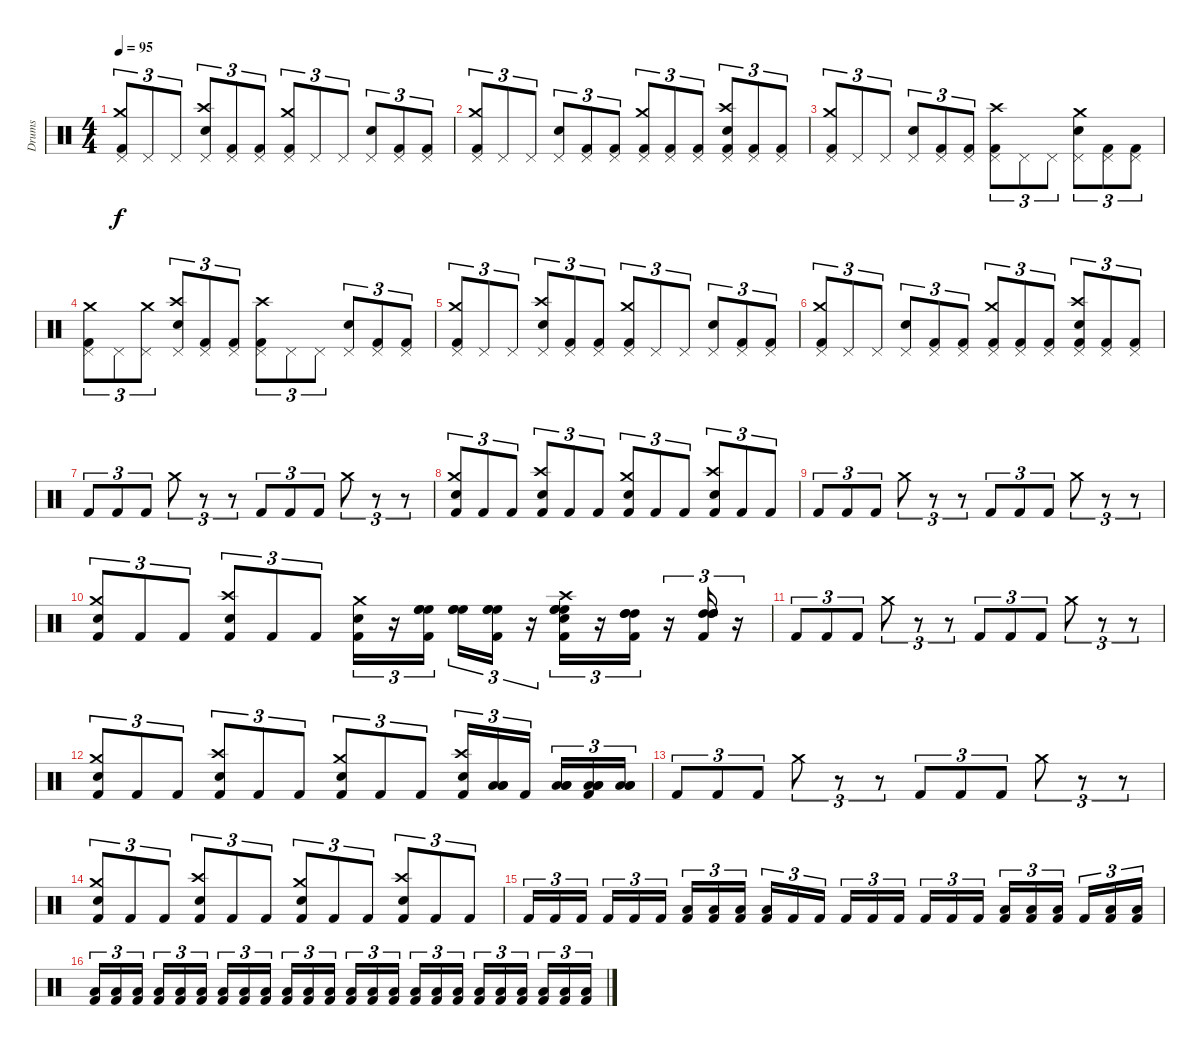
\track ("Drums" "Drums") {instrument percussion}
\staff {score}
\articulation defaults
\ts (4 4)
\tempo 95
\clef neutral
\ks c
("Kick (hit) 2" "Crash medium (hit)" "Pedal Hi-Hat (hit)").8{tu (3 2) dy f} "Pedal Hi-Hat (hit)".8{tu (3 2)} "Pedal Hi-Hat (hit)".8{tu (3 2)} ("Crash high (hit)" "Snare (hit) 2" "Pedal Hi-Hat (hit)").8{tu (3 2)} ("Kick (hit) 2" "Pedal Hi-Hat (hit)").8{tu (3 2)} ("Kick (hit) 2" "Pedal Hi-Hat (hit)").8{tu (3 2)} ("Kick (hit) 2" "Crash medium (hit)" "Pedal Hi-Hat (hit)").8{tu (3 2)} "Pedal Hi-Hat (hit)".8{tu (3 2)} "Pedal Hi-Hat (hit)".8{tu (3 2)} ("Snare (hit) 2" "Pedal Hi-Hat (hit)").8{tu (3 2)} ("Kick (hit) 2" "Pedal Hi-Hat (hit)").8{tu (3 2)} ("Kick (hit) 2" "Pedal Hi-Hat (hit)").8{tu (3 2)} |
("Kick (hit) 2" "Crash medium (hit)" "Pedal Hi-Hat (hit)").8{tu (3 2)} "Pedal Hi-Hat (hit)".8{tu (3 2)} "Pedal Hi-Hat (hit)".8{tu (3 2)} ("Snare (hit) 2" "Pedal Hi-Hat (hit)").8{tu (3 2)} ("Kick (hit) 2" "Pedal Hi-Hat (hit)").8{tu (3 2)} ("Kick (hit) 2" "Pedal Hi-Hat (hit)").8{tu (3 2)} ("Kick (hit) 2" "Crash medium (hit)" "Pedal Hi-Hat (hit)").8{tu (3 2)} ("Kick (hit) 2" "Pedal Hi-Hat (hit)").8{tu (3 2)} ("Kick (hit) 2" "Pedal Hi-Hat (hit)").8{tu (3 2)} ("Kick (hit) 2" "Crash high (hit)" "Snare (hit) 2" "Pedal Hi-Hat (hit)").8{tu (3 2)} ("Kick (hit) 2" "Pedal Hi-Hat (hit)").8{tu (3 2)} ("Kick (hit) 2" "Pedal Hi-Hat (hit)").8{tu (3 2)} |
("Kick (hit) 2" "Crash medium (hit)" "Pedal Hi-Hat (hit)").8{tu (3 2)} "Pedal Hi-Hat (hit)".8{tu (3 2)} "Pedal Hi-Hat (hit)".8{tu (3 2)} ("Snare (hit) 2" "Pedal Hi-Hat (hit)").8{tu (3 2)} ("Kick (hit) 2" "Pedal Hi-Hat (hit)").8{tu (3 2)} ("Kick (hit) 2" "Pedal Hi-Hat (hit)").8{tu (3 2)} ("Kick (hit) 2" "Crash high (hit)" "Pedal Hi-Hat (hit)").8{tu (3 2)} "Pedal Hi-Hat (hit)".8{tu (3 2)} "Pedal Hi-Hat (hit)".8{tu (3 2)} ("Crash medium (hit)" "Snare (hit) 2" "Pedal Hi-Hat (hit)").8{tu (3 2)} ("Kick (hit) 2" "Pedal Hi-Hat (hit)").8{tu (3 2)} ("Kick (hit) 2" "Pedal Hi-Hat (hit)").8{tu (3 2)} |
("Kick (hit) 2" "Crash medium (hit)" "Pedal Hi-Hat (hit)").8{tu (3 2)} "Pedal Hi-Hat (hit)".8{tu (3 2)} ("Crash medium (hit)" "Pedal Hi-Hat (hit)").8{tu (3 2)} ("Crash high (hit)" "Snare (hit) 2" "Pedal Hi-Hat (hit)").8{tu (3 2)} ("Kick (hit) 2" "Pedal Hi-Hat (hit)").8{tu (3 2)} ("Kick (hit) 2" "Pedal Hi-Hat (hit)").8{tu (3 2)} ("Kick (hit) 2" "Crash high (hit)" "Pedal Hi-Hat (hit)").8{tu (3 2)} "Pedal Hi-Hat (hit)".8{tu (3 2)} "Pedal Hi-Hat (hit)".8{tu (3 2)} ("Snare (hit) 2" "Pedal Hi-Hat (hit)").8{tu (3 2)} ("Kick (hit) 2" "Pedal Hi-Hat (hit)").8{tu (3 2)} ("Kick (hit) 2" "Pedal Hi-Hat (hit)").8{tu (3 2)} |
("Kick (hit) 2" "Crash medium (hit)" "Pedal Hi-Hat (hit)").8{tu (3 2)} "Pedal Hi-Hat (hit)".8{tu (3 2)} "Pedal Hi-Hat (hit)".8{tu (3 2)} ("Crash high (hit)" "Snare (hit) 2" "Pedal Hi-Hat (hit)").8{tu (3 2)} ("Kick (hit) 2" "Pedal Hi-Hat (hit)").8{tu (3 2)} ("Kick (hit) 2" "Pedal Hi-Hat (hit)").8{tu (3 2)} ("Kick (hit) 2" "Crash medium (hit)" "Pedal Hi-Hat (hit)").8{tu (3 2)} "Pedal Hi-Hat (hit)".8{tu (3 2)} "Pedal Hi-Hat (hit)".8{tu (3 2)} ("Snare (hit) 2" "Pedal Hi-Hat (hit)").8{tu (3 2)} ("Kick (hit) 2" "Pedal Hi-Hat (hit)").8{tu (3 2)} ("Kick (hit) 2" "Pedal Hi-Hat (hit)").8{tu (3 2)} |
("Kick (hit) 2" "Crash medium (hit)" "Pedal Hi-Hat (hit)").8{tu (3 2)} "Pedal Hi-Hat (hit)".8{tu (3 2)} "Pedal Hi-Hat (hit)".8{tu (3 2)} ("Snare (hit) 2" "Pedal Hi-Hat (hit)").8{tu (3 2)} ("Kick (hit) 2" "Pedal Hi-Hat (hit)").8{tu (3 2)} ("Kick (hit) 2" "Pedal Hi-Hat (hit)").8{tu (3 2)} ("Kick (hit) 2" "Crash medium (hit)" "Pedal Hi-Hat (hit)").8{tu (3 2)} ("Kick (hit) 2" "Pedal Hi-Hat (hit)").8{tu (3 2)} ("Kick (hit) 2" "Pedal Hi-Hat (hit)").8{tu (3 2)} ("Kick (hit) 2" "Crash high (hit)" "Snare (hit) 2" "Pedal Hi-Hat (hit)").8{tu (3 2)} ("Kick (hit) 2" "Pedal Hi-Hat (hit)").8{tu (3 2)} ("Kick (hit) 2" "Pedal Hi-Hat (hit)").8{tu (3 2)} |
"Kick (hit) 2".8{tu (3 2)} "Kick (hit) 2".8{tu (3 2)} "Kick (hit) 2".8{tu (3 2)} "Crash medium (hit)".8{tu (3 2)} r.8{tu (3 2)} r.8{tu (3 2)} "Kick (hit) 2".8{tu (3 2)} "Kick (hit) 2".8{tu (3 2)} "Kick (hit) 2".8{tu (3 2)} "Crash medium (hit)".8{tu (3 2)} r.8{tu (3 2)} r.8{tu (3 2)} |
("Kick (hit) 2" "Crash medium (hit)" "Snare (hit) 2").8{tu (3 2)} "Kick (hit) 2".8{tu (3 2)} "Kick (hit) 2".8{tu (3 2)} ("Kick (hit) 2" "Crash high (hit)" "Snare (hit) 2").8{tu (3 2)} "Kick (hit) 2".8{tu (3 2)} "Kick (hit) 2".8{tu (3 2)} ("Kick (hit) 2" "Crash medium (hit)" "Snare (hit) 2").8{tu (3 2)} "Kick (hit) 2".8{tu (3 2)} "Kick (hit) 2".8{tu (3 2)} ("Kick (hit) 2" "Crash high (hit)" "Snare (hit) 2").8{tu (3 2)} "Kick (hit) 2".8{tu (3 2)} "Kick (hit) 2".8{tu (3 2)} |
"Kick (hit) 2".8{tu (3 2)} "Kick (hit) 2".8{tu (3 2)} "Kick (hit) 2".8{tu (3 2)} "Crash medium (hit)".8{tu (3 2)} r.8{tu (3 2)} r.8{tu (3 2)} "Kick (hit) 2".8{tu (3 2)} "Kick (hit) 2".8{tu (3 2)} "Kick (hit) 2".8{tu (3 2)} "Crash medium (hit)".8{tu (3 2)} r.8{tu (3 2)} r.8{tu (3 2)} |
("Kick (hit) 2" "Crash medium (hit)" "Snare (hit) 2").8{tu (3 2)} "Kick (hit) 2".8{tu (3 2)} "Kick (hit) 2".8{tu (3 2)} ("Kick (hit) 2" "Crash high (hit)" "Snare (hit) 2").8{tu (3 2)} "Kick (hit) 2".8{tu (3 2)} "Kick (hit) 2".8{tu (3 2)} ("Kick (hit) 2" "Crash medium (hit)" "Snare (hit) 2").16{tu (3 2)} r.16{tu (3 2)} ("Kick (hit) 2" "High Floor Tom (hit)" "High Floor Tom (hit)" "High Floor Tom (hit)").16{tu (3 2)} ("High Floor Tom (hit)" "High Floor Tom (hit)" "High Floor Tom (hit)").16{tu (3 2)} ("Kick (hit) 2" "High Floor Tom (hit)" "High Floor Tom (hit)" "High Floor Tom (hit)").16{tu (3 2)} r.16{tu (3 2)} ("Kick (hit) 2" "Crash high (hit)" "Snare (hit) 2" "High Floor Tom (hit)" "High Floor Tom (hit)" "High Floor Tom (hit)").16{tu (3 2)} r.16{tu (3 2)} ("Kick (hit) 2" "High Tom (hit)" "High Tom (hit)" "High Tom (hit)").16{tu (3 2)} r.16{tu (3 2)} ("Kick (hit) 2" "High Tom (hit)" "High Tom (hit)" "High Tom (hit)").16{tu (3 2)} r.16{tu (3 2)} |
"Kick (hit) 2".8{tu (3 2)} "Kick (hit) 2".8{tu (3 2)} "Kick (hit) 2".8{tu (3 2)} "Crash medium (hit)".8{tu (3 2)} r.8{tu (3 2)} r.8{tu (3 2)} "Kick (hit) 2".8{tu (3 2)} "Kick (hit) 2".8{tu (3 2)} "Kick (hit) 2".8{tu (3 2)} "Crash medium (hit)".8{tu (3 2)} r.8{tu (3 2)} r.8{tu (3 2)} |
("Kick (hit) 2" "Crash medium (hit)" "Snare (hit) 2").8{tu (3 2)} "Kick (hit) 2".8{tu (3 2)} "Kick (hit) 2".8{tu (3 2)} ("Kick (hit) 2" "Crash high (hit)" "Snare (hit) 2").8{tu (3 2)} "Kick (hit) 2".8{tu (3 2)} "Kick (hit) 2".8{tu (3 2)} ("Kick (hit) 2" "Crash medium (hit)" "Snare (hit) 2").8{tu (3 2)} "Kick (hit) 2".8{tu (3 2)} "Kick (hit) 2".8{tu (3 2)} ("Kick (hit) 2" "Crash high (hit)" "Snare (hit) 2").16{tu (3 2)} ("Low Tom (hit)" "Low Tom (hit)" "Low Tom (hit)").16{tu (3 2)} "Kick (hit) 2".16{tu (3 2)} ("Low Tom (hit)" "Low Tom (hit)" "Low Tom (hit)").16{tu (3 2)} ("Kick (hit) 2" "Low Tom (hit)" "Low Tom (hit)" "Low Tom (hit)").16{tu (3 2)} ("Low Floor Tom (hit)" "Low Floor Tom (hit)" "Low Floor Tom (hit)").16{tu (3 2)} |
"Kick (hit) 2".8{tu (3 2)} "Kick (hit) 2".8{tu (3 2)} "Kick (hit) 2".8{tu (3 2)} "Crash medium (hit)".8{tu (3 2)} r.8{tu (3 2)} r.8{tu (3 2)} "Kick (hit) 2".8{tu (3 2)} "Kick (hit) 2".8{tu (3 2)} "Kick (hit) 2".8{tu (3 2)} "Crash medium (hit)".8{tu (3 2)} r.8{tu (3 2)} r.8{tu (3 2)} |
("Kick (hit) 2" "Crash medium (hit)" "Snare (hit) 2").8{tu (3 2)} "Kick (hit) 2".8{tu (3 2)} "Kick (hit) 2".8{tu (3 2)} ("Kick (hit) 2" "Crash high (hit)" "Snare (hit) 2").8{tu (3 2)} "Kick (hit) 2".8{tu (3 2)} "Kick (hit) 2".8{tu (3 2)} ("Kick (hit) 2" "Crash medium (hit)" "Snare (hit) 2").8{tu (3 2)} "Kick (hit) 2".8{tu (3 2)} "Kick (hit) 2".8{tu (3 2)} ("Kick (hit) 2" "Crash high (hit)" "Snare (hit) 2").8{tu (3 2)} "Kick (hit) 2".8{tu (3 2)} "Kick (hit) 2".8{tu (3 2)} |
"Kick (hit) 2".16{tu (3 2)} "Kick (hit) 2".16{tu (3 2)} "Kick (hit) 2".16{tu (3 2)} "Kick (hit) 2".16{tu (3 2)} "Kick (hit) 2".16{tu (3 2)} "Kick (hit) 2".16{tu (3 2)} ("Kick (hit) 2" "Low Tom (hit)").16{tu (3 2)} ("Kick (hit) 2" "Low Tom (hit)").16{tu (3 2)} ("Kick (hit) 2" "Low Floor Tom (hit)").16{tu (3 2)} ("Kick (hit) 2" "Low Floor Tom (hit)").16{tu (3 2)} "Kick (hit) 2".16{tu (3 2)} "Kick (hit) 2".16{tu (3 2)} "Kick (hit) 2".16{tu (3 2)} "Kick (hit) 2".16{tu (3 2)} "Kick (hit) 2".16{tu (3 2)} "Kick (hit) 2".16{tu (3 2)} "Kick (hit) 2".16{tu (3 2)} "Kick (hit) 2".16{tu (3 2)} ("Kick (hit) 2" "Low Tom (hit)").16{tu (3 2)} ("Kick (hit) 2" "Low Floor Tom (hit)").16{tu (3 2)} ("Kick (hit) 2" "Low Floor Tom (hit)").16{tu (3 2)} "Kick (hit) 2".16{tu (3 2)} ("Kick (hit) 2" "Low Floor Tom (hit)").16{tu (3 2)} ("Kick (hit) 2" "Low Tom (hit)").16{tu (3 2)} |
("Kick (hit) 2" "Low Tom (hit)").16{tu (3 2)} ("Kick (hit) 2" "Low Tom (hit)").16{tu (3 2)} ("Kick (hit) 2" "Low Tom (hit)").16{tu (3 2)} ("Kick (hit) 2" "Low Floor Tom (hit)").16{tu (3 2)} ("Kick (hit) 2" "Low Floor Tom (hit)").16{tu (3 2)} ("Kick (hit) 2" "Low Floor Tom (hit)").16{tu (3 2)} ("Kick (hit) 2" "Low Tom (hit)").16{tu (3 2)} ("Kick (hit) 2" "Low Tom (hit)").16{tu (3 2)} ("Kick (hit) 2" "Low Tom (hit)").16{tu (3 2)} ("Kick (hit) 2" "Low Floor Tom (hit)").16{tu (3 2)} ("Kick (hit) 2" "Low Floor Tom (hit)").16{tu (3 2)} ("Kick (hit) 2" "Low Floor Tom (hit)").16{tu (3 2)} ("Kick (hit) 2" "Low Tom (hit)").16{tu (3 2)} ("Kick (hit) 2" "Low Tom (hit)").16{tu (3 2)} ("Kick (hit) 2" "Low Floor Tom (hit)").16{tu (3 2)} ("Kick (hit) 2" "Low Floor Tom (hit)").16{tu (3 2)} ("Kick (hit) 2" "Low Floor Tom (hit)").16{tu (3 2)} ("Kick (hit) 2" "Low Tom (hit)").16{tu (3 2)} ("Kick (hit) 2" "Low Tom (hit)").16{tu (3 2)} ("Kick (hit) 2" "Low Tom (hit)").16{tu (3 2)} ("Kick (hit) 2" "Low Floor Tom (hit)").16{tu (3 2)} ("Kick (hit) 2" "Low Floor Tom (hit)").16{tu (3 2)} ("Kick (hit) 2" "Low Floor Tom (hit)").16{tu (3 2)} ("Kick (hit) 2" "Low Tom (hit)").16{tu (3 2)}
